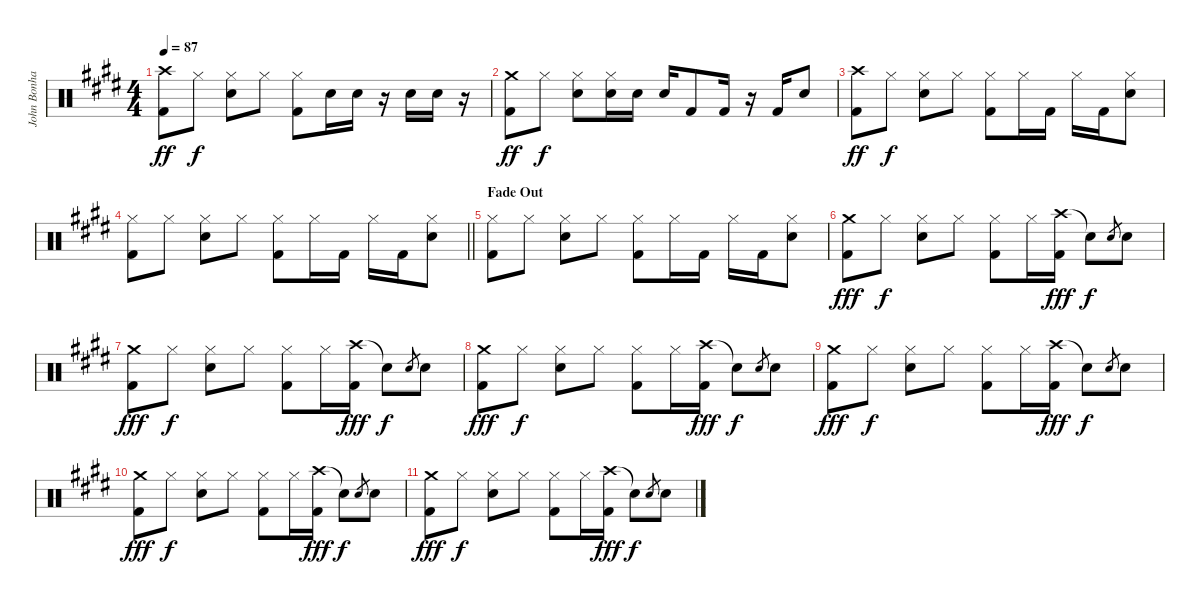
\track ("John Bonham Drums" "John Bonha") {instrument percussion}
\staff {score}
\articulation defaults
\ts (4 4)
\tempo 87
\clef neutral
\ks e
("Crash high (hit)" "Kick (hit) 2").8{dy ff} "Hi-Hat (closed)".8{dy f} ("Hi-Hat (closed)" "Snare (hit) 2").8 "Hi-Hat (closed)".8 ("Hi-Hat (closed)" "Kick (hit) 2").8 "Snare (hit) 2".16 "Snare (hit) 2".16 r.16 "Snare (hit) 2".16 "Snare (hit) 2".16 r.16 |
("Crash medium (hit)" "Kick (hit) 2").8{dy ff} "Hi-Hat (closed)".8{dy f} ("Hi-Hat (closed)" "Snare (hit) 2").8 ("Hi-Hat (closed)" "Snare (hit) 2").16 "Snare (hit) 2".16 "Snare (hit) 2".16 "Kick (hit) 2".8 "Kick (hit) 2".16 r.16 "Kick (hit) 2".16 "Snare (hit) 2".8 |
("Crash high (hit)" "Kick (hit) 2").8{dy ff} "Hi-Hat (closed)".8{dy f} ("Hi-Hat (closed)" "Snare (hit) 2").8 "Hi-Hat (closed)".8 ("Hi-Hat (closed)" "Kick (hit) 2").8 "Hi-Hat (closed)".16 "Kick (hit) 2".16 "Hi-Hat (closed)".16 "Kick (hit) 2".16 ("Hi-Hat (closed)" "Snare (hit) 2").8 |
\barLineRight lightlight
("Hi-Hat (closed)" "Kick (hit) 2").8 "Hi-Hat (closed)".8 ("Hi-Hat (closed)" "Snare (hit) 2").8 "Hi-Hat (closed)".8 ("Hi-Hat (closed)" "Kick (hit) 2").8 "Hi-Hat (closed)".16 "Kick (hit) 2".16 "Hi-Hat (closed)".16 "Kick (hit) 2".16 ("Hi-Hat (closed)" "Snare (hit) 2").8 |
\section ("" "Fade Out")
("Hi-Hat (closed)" "Kick (hit) 2").8 "Hi-Hat (closed)".8 ("Hi-Hat (closed)" "Snare (hit) 2").8 "Hi-Hat (closed)".8 ("Hi-Hat (closed)" "Kick (hit) 2").8 "Hi-Hat (closed)".16 "Kick (hit) 2".16 "Hi-Hat (closed)".16 "Kick (hit) 2".16 ("Hi-Hat (closed)" "Snare (hit) 2").8 |
("Crash medium (hit)" "Kick (hit) 2").8{dy fff} "Hi-Hat (closed)".8{dy f} ("Hi-Hat (closed)" "Snare (hit) 2").8 "Hi-Hat (closed)".8 ("Hi-Hat (closed)" "Kick (hit) 2").8 "Hi-Hat (closed)".16 ("Crash high (hit)" "Kick (hit) 2").16{dy fff} "Snare (hit)"{t}.8{dy f} "Snare (hit) 2".8{gr} "Snare (hit) 2".8 |
("Crash medium (hit)" "Kick (hit) 2").8{dy fff} "Hi-Hat (closed)".8{dy f} ("Hi-Hat (closed)" "Snare (hit) 2").8 "Hi-Hat (closed)".8 ("Hi-Hat (closed)" "Kick (hit) 2").8 "Hi-Hat (closed)".16 ("Crash high (hit)" "Kick (hit) 2").16{dy fff} "Snare (hit)"{t}.8{dy f} "Snare (hit) 2".8{gr} "Snare (hit) 2".8 |
("Crash medium (hit)" "Kick (hit) 2").8{dy fff} "Hi-Hat (closed)".8{dy f} ("Hi-Hat (closed)" "Snare (hit) 2").8 "Hi-Hat (closed)".8 ("Hi-Hat (closed)" "Kick (hit) 2").8 "Hi-Hat (closed)".16 ("Crash high (hit)" "Kick (hit) 2").16{dy fff} "Snare (hit)"{t}.8{dy f} "Snare (hit) 2".8{gr} "Snare (hit) 2".8 |
("Crash medium (hit)" "Kick (hit) 2").8{dy fff} "Hi-Hat (closed)".8{dy f} ("Hi-Hat (closed)" "Snare (hit) 2").8 "Hi-Hat (closed)".8 ("Hi-Hat (closed)" "Kick (hit) 2").8 "Hi-Hat (closed)".16 ("Crash high (hit)" "Kick (hit) 2").16{dy fff} "Snare (hit)"{t}.8{dy f} "Snare (hit) 2".8{gr} "Snare (hit) 2".8 |
("Crash medium (hit)" "Kick (hit) 2").8{dy fff} "Hi-Hat (closed)".8{dy f} ("Hi-Hat (closed)" "Snare (hit) 2").8 "Hi-Hat (closed)".8 ("Hi-Hat (closed)" "Kick (hit) 2").8 "Hi-Hat (closed)".16 ("Crash high (hit)" "Kick (hit) 2").16{dy fff} "Snare (hit)"{t}.8{dy f} "Snare (hit) 2".8{gr} "Snare (hit) 2".8 |
("Crash medium (hit)" "Kick (hit) 2").8{dy fff} "Hi-Hat (closed)".8{dy f} ("Hi-Hat (closed)" "Snare (hit) 2").8 "Hi-Hat (closed)".8 ("Hi-Hat (closed)" "Kick (hit) 2").8 "Hi-Hat (closed)".16 ("Crash high (hit)" "Kick (hit) 2").16{dy fff} "Snare (hit)"{t}.8{dy f} "Snare (hit) 2".8{gr} "Snare (hit) 2".8
